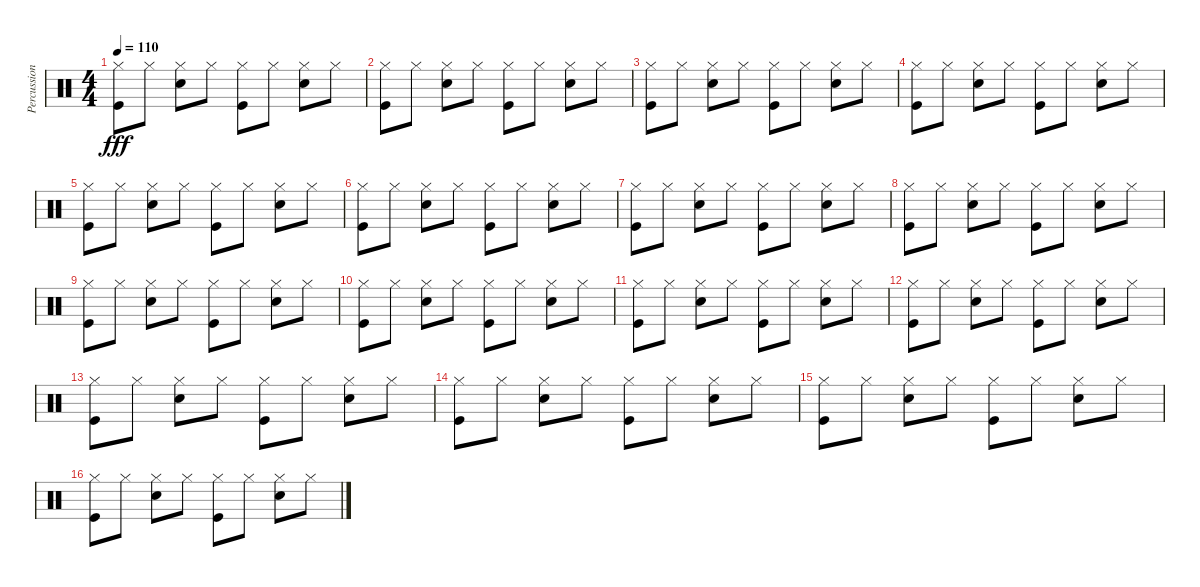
\track ("Percussion" "Percussion") {instrument percussion}
\staff {score}
\articulation defaults
\ts (4 4)
\tempo 110
\clef neutral
\ks c
("Hi-Hat (closed)" "Kick (hit)").8{dy fff} "Hi-Hat (closed)".8 ("Hi-Hat (closed)" "Snare (hit) 2").8 "Hi-Hat (closed)".8 ("Hi-Hat (closed)" "Kick (hit)").8 "Hi-Hat (closed)".8 ("Hi-Hat (closed)" "Snare (hit) 2").8 "Hi-Hat (closed)".8 |
("Hi-Hat (closed)" "Kick (hit)").8 "Hi-Hat (closed)".8 ("Hi-Hat (closed)" "Snare (hit) 2").8 "Hi-Hat (closed)".8 ("Hi-Hat (closed)" "Kick (hit)").8 "Hi-Hat (closed)".8 ("Hi-Hat (closed)" "Snare (hit) 2").8 "Hi-Hat (closed)".8 |
("Hi-Hat (closed)" "Kick (hit)").8 "Hi-Hat (closed)".8 ("Hi-Hat (closed)" "Snare (hit) 2").8 "Hi-Hat (closed)".8 ("Hi-Hat (closed)" "Kick (hit)").8 "Hi-Hat (closed)".8 ("Hi-Hat (closed)" "Snare (hit) 2").8 "Hi-Hat (closed)".8 |
("Hi-Hat (closed)" "Kick (hit)").8 "Hi-Hat (closed)".8 ("Hi-Hat (closed)" "Snare (hit) 2").8 "Hi-Hat (closed)".8 ("Hi-Hat (closed)" "Kick (hit)").8 "Hi-Hat (closed)".8 ("Hi-Hat (closed)" "Snare (hit) 2").8 "Hi-Hat (closed)".8 |
("Hi-Hat (closed)" "Kick (hit)").8 "Hi-Hat (closed)".8 ("Hi-Hat (closed)" "Snare (hit) 2").8 "Hi-Hat (closed)".8 ("Hi-Hat (closed)" "Kick (hit)").8 "Hi-Hat (closed)".8 ("Hi-Hat (closed)" "Snare (hit) 2").8 "Hi-Hat (closed)".8 |
("Hi-Hat (closed)" "Kick (hit)").8 "Hi-Hat (closed)".8 ("Hi-Hat (closed)" "Snare (hit) 2").8 "Hi-Hat (closed)".8 ("Hi-Hat (closed)" "Kick (hit)").8 "Hi-Hat (closed)".8 ("Hi-Hat (closed)" "Snare (hit) 2").8 "Hi-Hat (closed)".8 |
("Hi-Hat (closed)" "Kick (hit)").8 "Hi-Hat (closed)".8 ("Hi-Hat (closed)" "Snare (hit) 2").8 "Hi-Hat (closed)".8 ("Hi-Hat (closed)" "Kick (hit)").8 "Hi-Hat (closed)".8 ("Hi-Hat (closed)" "Snare (hit) 2").8 "Hi-Hat (closed)".8 |
("Hi-Hat (closed)" "Kick (hit)").8 "Hi-Hat (closed)".8 ("Hi-Hat (closed)" "Snare (hit) 2").8 "Hi-Hat (closed)".8 ("Hi-Hat (closed)" "Kick (hit)").8 "Hi-Hat (closed)".8 ("Hi-Hat (closed)" "Snare (hit) 2").8 "Hi-Hat (closed)".8 |
("Hi-Hat (closed)" "Kick (hit)").8 "Hi-Hat (closed)".8 ("Hi-Hat (closed)" "Snare (hit) 2").8 "Hi-Hat (closed)".8 ("Hi-Hat (closed)" "Kick (hit)").8 "Hi-Hat (closed)".8 ("Hi-Hat (closed)" "Snare (hit) 2").8 "Hi-Hat (closed)".8 |
("Hi-Hat (closed)" "Kick (hit)").8 "Hi-Hat (closed)".8 ("Hi-Hat (closed)" "Snare (hit) 2").8 "Hi-Hat (closed)".8 ("Hi-Hat (closed)" "Kick (hit)").8 "Hi-Hat (closed)".8 ("Hi-Hat (closed)" "Snare (hit) 2").8 "Hi-Hat (closed)".8 |
("Hi-Hat (closed)" "Kick (hit)").8 "Hi-Hat (closed)".8 ("Hi-Hat (closed)" "Snare (hit) 2").8 "Hi-Hat (closed)".8 ("Hi-Hat (closed)" "Kick (hit)").8 "Hi-Hat (closed)".8 ("Hi-Hat (closed)" "Snare (hit) 2").8 "Hi-Hat (closed)".8 |
("Hi-Hat (closed)" "Kick (hit)").8 "Hi-Hat (closed)".8 ("Hi-Hat (closed)" "Snare (hit) 2").8 "Hi-Hat (closed)".8 ("Hi-Hat (closed)" "Kick (hit)").8 "Hi-Hat (closed)".8 ("Hi-Hat (closed)" "Snare (hit) 2").8 "Hi-Hat (closed)".8 |
("Hi-Hat (closed)" "Kick (hit)").8 "Hi-Hat (closed)".8 ("Hi-Hat (closed)" "Snare (hit) 2").8 "Hi-Hat (closed)".8 ("Hi-Hat (closed)" "Kick (hit)").8 "Hi-Hat (closed)".8 ("Hi-Hat (closed)" "Snare (hit) 2").8 "Hi-Hat (closed)".8 |
("Hi-Hat (closed)" "Kick (hit)").8 "Hi-Hat (closed)".8 ("Hi-Hat (closed)" "Snare (hit) 2").8 "Hi-Hat (closed)".8 ("Hi-Hat (closed)" "Kick (hit)").8 "Hi-Hat (closed)".8 ("Hi-Hat (closed)" "Snare (hit) 2").8 "Hi-Hat (closed)".8 |
("Hi-Hat (closed)" "Kick (hit)").8 "Hi-Hat (closed)".8 ("Hi-Hat (closed)" "Snare (hit) 2").8 "Hi-Hat (closed)".8 ("Hi-Hat (closed)" "Kick (hit)").8 "Hi-Hat (closed)".8 ("Hi-Hat (closed)" "Snare (hit) 2").8 "Hi-Hat (closed)".8 |
("Hi-Hat (closed)" "Kick (hit)").8 "Hi-Hat (closed)".8 ("Hi-Hat (closed)" "Snare (hit) 2").8 "Hi-Hat (closed)".8 ("Hi-Hat (closed)" "Kick (hit)").8 "Hi-Hat (closed)".8 ("Hi-Hat (closed)" "Snare (hit) 2").8 "Hi-Hat (closed)".8
